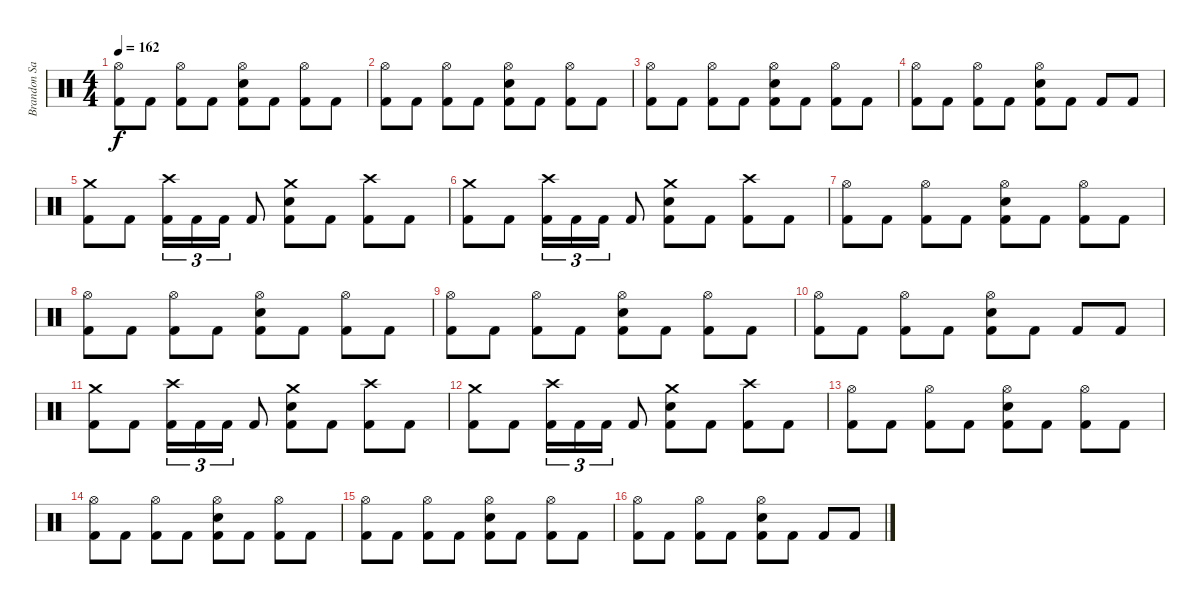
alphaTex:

\track ("Brandon Saller" "Brandon Sa") {instrument percussion}
\staff {score}
\articulation defaults
\ts (4 4)
\tempo 162
\clef neutral
\ks c
("Hi-Hat (open)" "Kick (hit) 2").8{dy f} "Kick (hit) 2".8 ("Hi-Hat (open)" "Kick (hit) 2").8 "Kick (hit) 2".8 ("Hi-Hat (open)" "Electric Snare (hit)" "Kick (hit) 2").8 "Kick (hit) 2".8 ("Hi-Hat (open)" "Kick (hit) 2").8 "Kick (hit) 2".8 |
("Hi-Hat (open)" "Kick (hit) 2").8 "Kick (hit) 2".8 ("Hi-Hat (open)" "Kick (hit) 2").8 "Kick (hit) 2".8 ("Hi-Hat (open)" "Electric Snare (hit)" "Kick (hit) 2").8 "Kick (hit) 2".8 ("Hi-Hat (open)" "Kick (hit) 2").8 "Kick (hit) 2".8 |
("Hi-Hat (open)" "Kick (hit) 2").8 "Kick (hit) 2".8 ("Hi-Hat (open)" "Kick (hit) 2").8 "Kick (hit) 2".8 ("Hi-Hat (open)" "Electric Snare (hit)" "Kick (hit) 2").8 "Kick (hit) 2".8 ("Hi-Hat (open)" "Kick (hit) 2").8 "Kick (hit) 2".8 |
("Hi-Hat (open)" "Kick (hit) 2").8 "Kick (hit) 2".8 ("Hi-Hat (open)" "Kick (hit) 2").8 "Kick (hit) 2".8 ("Hi-Hat (open)" "Electric Snare (hit)" "Kick (hit) 2").8 "Kick (hit) 2".8 "Kick (hit) 2".8 "Kick (hit) 2".8 |
("Crash medium (hit)" "Kick (hit) 2").8 "Kick (hit) 2".8 ("Crash high (hit)" "Kick (hit) 2").16{tu (3 2)} "Kick (hit) 2".16{tu (3 2)} "Kick (hit) 2".16{tu (3 2)} "Kick (hit) 2".8 ("Crash medium (hit)" "Electric Snare (hit)" "Kick (hit) 2").8 "Kick (hit) 2".8 ("Crash high (hit)" "Kick (hit) 2").8 "Kick (hit) 2".8 |
("Crash medium (hit)" "Kick (hit) 2").8 "Kick (hit) 2".8 ("Crash high (hit)" "Kick (hit) 2").16{tu (3 2)} "Kick (hit) 2".16{tu (3 2)} "Kick (hit) 2".16{tu (3 2)} "Kick (hit) 2".8 ("Crash medium (hit)" "Electric Snare (hit)" "Kick (hit) 2").8 "Kick (hit) 2".8 ("Crash high (hit)" "Kick (hit) 2").8 "Kick (hit) 2".8 |
("Hi-Hat (open)" "Kick (hit) 2").8 "Kick (hit) 2".8 ("Hi-Hat (open)" "Kick (hit) 2").8 "Kick (hit) 2".8 ("Hi-Hat (open)" "Electric Snare (hit)" "Kick (hit) 2").8 "Kick (hit) 2".8 ("Hi-Hat (open)" "Kick (hit) 2").8 "Kick (hit) 2".8 |
("Hi-Hat (open)" "Kick (hit) 2").8 "Kick (hit) 2".8 ("Hi-Hat (open)" "Kick (hit) 2").8 "Kick (hit) 2".8 ("Hi-Hat (open)" "Electric Snare (hit)" "Kick (hit) 2").8 "Kick (hit) 2".8 ("Hi-Hat (open)" "Kick (hit) 2").8 "Kick (hit) 2".8 |
("Hi-Hat (open)" "Kick (hit) 2").8 "Kick (hit) 2".8 ("Hi-Hat (open)" "Kick (hit) 2").8 "Kick (hit) 2".8 ("Hi-Hat (open)" "Electric Snare (hit)" "Kick (hit) 2").8 "Kick (hit) 2".8 ("Hi-Hat (open)" "Kick (hit) 2").8 "Kick (hit) 2".8 |
("Hi-Hat (open)" "Kick (hit) 2").8 "Kick (hit) 2".8 ("Hi-Hat (open)" "Kick (hit) 2").8 "Kick (hit) 2".8 ("Hi-Hat (open)" "Electric Snare (hit)" "Kick (hit) 2").8 "Kick (hit) 2".8 "Kick (hit) 2".8 "Kick (hit) 2".8 |
("Crash medium (hit)" "Kick (hit) 2").8 "Kick (hit) 2".8 ("Crash high (hit)" "Kick (hit) 2").16{tu (3 2)} "Kick (hit) 2".16{tu (3 2)} "Kick (hit) 2".16{tu (3 2)} "Kick (hit) 2".8 ("Crash medium (hit)" "Electric Snare (hit)" "Kick (hit) 2").8 "Kick (hit) 2".8 ("Crash high (hit)" "Kick (hit) 2").8 "Kick (hit) 2".8 |
("Crash medium (hit)" "Kick (hit) 2").8 "Kick (hit) 2".8 ("Crash high (hit)" "Kick (hit) 2").16{tu (3 2)} "Kick (hit) 2".16{tu (3 2)} "Kick (hit) 2".16{tu (3 2)} "Kick (hit) 2".8 ("Crash medium (hit)" "Electric Snare (hit)" "Kick (hit) 2").8 "Kick (hit) 2".8 ("Crash high (hit)" "Kick (hit) 2").8 "Kick (hit) 2".8 |
("Hi-Hat (open)" "Kick (hit) 2").8 "Kick (hit) 2".8 ("Hi-Hat (open)" "Kick (hit) 2").8 "Kick (hit) 2".8 ("Hi-Hat (open)" "Electric Snare (hit)" "Kick (hit) 2").8 "Kick (hit) 2".8 ("Hi-Hat (open)" "Kick (hit) 2").8 "Kick (hit) 2".8 |
("Hi-Hat (open)" "Kick (hit) 2").8 "Kick (hit) 2".8 ("Hi-Hat (open)" "Kick (hit) 2").8 "Kick (hit) 2".8 ("Hi-Hat (open)" "Electric Snare (hit)" "Kick (hit) 2").8 "Kick (hit) 2".8 ("Hi-Hat (open)" "Kick (hit) 2").8 "Kick (hit) 2".8 |
("Hi-Hat (open)" "Kick (hit) 2").8 "Kick (hit) 2".8 ("Hi-Hat (open)" "Kick (hit) 2").8 "Kick (hit) 2".8 ("Hi-Hat (open)" "Electric Snare (hit)" "Kick (hit) 2").8 "Kick (hit) 2".8 ("Hi-Hat (open)" "Kick (hit) 2").8 "Kick (hit) 2".8 |
("Hi-Hat (open)" "Kick (hit) 2").8 "Kick (hit) 2".8 ("Hi-Hat (open)" "Kick (hit) 2").8 "Kick (hit) 2".8 ("Hi-Hat (open)" "Electric Snare (hit)" "Kick (hit) 2").8 "Kick (hit) 2".8 "Kick (hit) 2".8 "Kick (hit) 2".8
